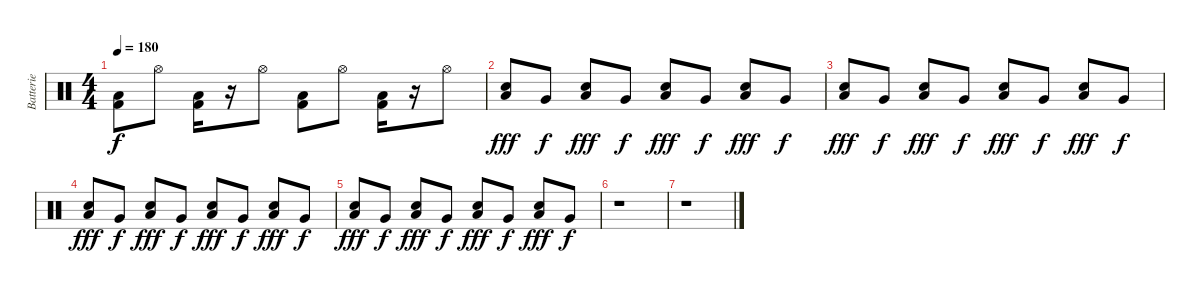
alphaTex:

\track ("Batterie" "Batterie") {instrument percussion}
\staff {score}
\articulation defaults
\ts (4 4)
\tempo 180
\clef neutral
\ks c
("Kick (hit) 2" "Low Floor Tom (hit)").8{dy f} "Hi-Hat (open)".8 ("Kick (hit) 2" "Low Floor Tom (hit)").16 r.16 "Hi-Hat (open)".8 ("Kick (hit) 2" "Low Floor Tom (hit)").8 "Hi-Hat (open)".8 ("Kick (hit) 2" "Low Floor Tom (hit)").16 r.16 "Hi-Hat (open)".8 |
("Electric Snare (hit)" "Low Floor Tom (hit)").8{dy fff} "Very Low Tom (hit)".8{dy f} ("Electric Snare (hit)" "Low Floor Tom (hit)").8{dy fff} "Very Low Tom (hit)".8{dy f} ("Electric Snare (hit)" "Low Floor Tom (hit)").8{dy fff} "Very Low Tom (hit)".8{dy f} ("Electric Snare (hit)" "Low Floor Tom (hit)").8{dy fff} "Very Low Tom (hit)".8{dy f} |
("Electric Snare (hit)" "Low Floor Tom (hit)").8{dy fff} "Very Low Tom (hit)".8{dy f} ("Electric Snare (hit)" "Low Floor Tom (hit)").8{dy fff} "Very Low Tom (hit)".8{dy f} ("Electric Snare (hit)" "Low Floor Tom (hit)").8{dy fff} "Very Low Tom (hit)".8{dy f} ("Electric Snare (hit)" "Low Floor Tom (hit)").8{dy fff} "Very Low Tom (hit)".8{dy f} |
("Electric Snare (hit)" "Low Floor Tom (hit)").8{dy fff} "Very Low Tom (hit)".8{dy f} ("Electric Snare (hit)" "Low Floor Tom (hit)").8{dy fff} "Very Low Tom (hit)".8{dy f} ("Electric Snare (hit)" "Low Floor Tom (hit)").8{dy fff} "Very Low Tom (hit)".8{dy f} ("Electric Snare (hit)" "Low Floor Tom (hit)").8{dy fff} "Very Low Tom (hit)".8{dy f} |
("Electric Snare (hit)" "Low Floor Tom (hit)").8{dy fff} "Very Low Tom (hit)".8{dy f} ("Electric Snare (hit)" "Low Floor Tom (hit)").8{dy fff} "Very Low Tom (hit)".8{dy f} ("Electric Snare (hit)" "Low Floor Tom (hit)").8{dy fff} "Very Low Tom (hit)".8{dy f} ("Electric Snare (hit)" "Low Floor Tom (hit)").8{dy fff} "Very Low Tom (hit)".8{dy f} |
r.1 |
r.1
